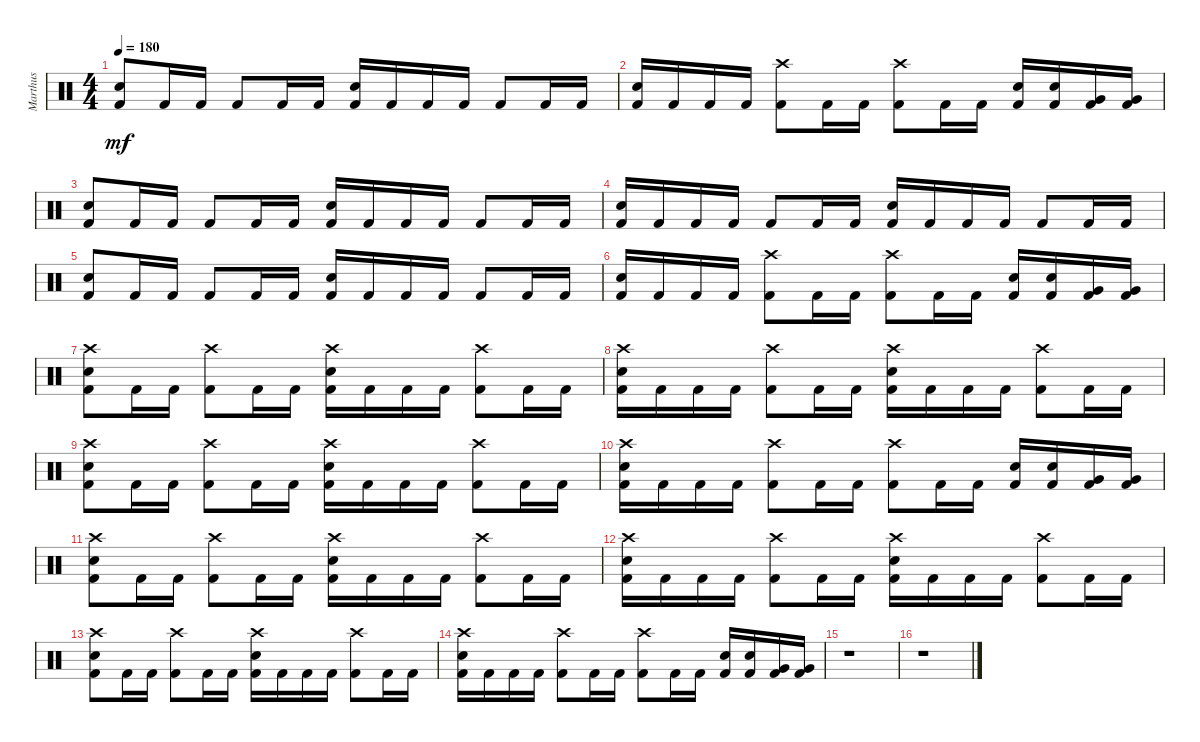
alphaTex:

\track ("Marthus" "Marthus") {instrument percussion}
\staff {score}
\articulation defaults
\ts (4 4)
\tempo 180
\clef neutral
\ks c
("Electric Snare (hit)" "Kick (hit) 2").8{dy mf} "Kick (hit) 2".16 "Kick (hit) 2".16 "Kick (hit) 2".8 "Kick (hit) 2".16 "Kick (hit) 2".16 ("Electric Snare (hit)" "Kick (hit) 2").16 "Kick (hit) 2".16 "Kick (hit) 2".16 "Kick (hit) 2".16 "Kick (hit) 2".8 "Kick (hit) 2".16 "Kick (hit) 2".16 |
("Electric Snare (hit)" "Kick (hit) 2").16 "Kick (hit) 2".16 "Kick (hit) 2".16 "Kick (hit) 2".16 ("Crash high (hit)" "Kick (hit) 2").8 "Kick (hit) 2".16 "Kick (hit) 2".16 ("Crash high (hit)" "Kick (hit) 2").8 "Kick (hit) 2".16 "Kick (hit) 2".16 ("Electric Snare (hit)" "Kick (hit) 2").16 ("Electric Snare (hit)" "Kick (hit) 2").16 ("Very Low Tom (hit)" "Kick (hit) 2").16 ("Very Low Tom (hit)" "Kick (hit) 2").16 |
("Electric Snare (hit)" "Kick (hit) 2").8 "Kick (hit) 2".16 "Kick (hit) 2".16 "Kick (hit) 2".8 "Kick (hit) 2".16 "Kick (hit) 2".16 ("Electric Snare (hit)" "Kick (hit) 2").16 "Kick (hit) 2".16 "Kick (hit) 2".16 "Kick (hit) 2".16 "Kick (hit) 2".8 "Kick (hit) 2".16 "Kick (hit) 2".16 |
("Electric Snare (hit)" "Kick (hit) 2").16 "Kick (hit) 2".16 "Kick (hit) 2".16 "Kick (hit) 2".16 "Kick (hit) 2".8 "Kick (hit) 2".16 "Kick (hit) 2".16 ("Electric Snare (hit)" "Kick (hit) 2").16 "Kick (hit) 2".16 "Kick (hit) 2".16 "Kick (hit) 2".16 "Kick (hit) 2".8 "Kick (hit) 2".16 "Kick (hit) 2".16 |
("Electric Snare (hit)" "Kick (hit) 2").8 "Kick (hit) 2".16 "Kick (hit) 2".16 "Kick (hit) 2".8 "Kick (hit) 2".16 "Kick (hit) 2".16 ("Electric Snare (hit)" "Kick (hit) 2").16 "Kick (hit) 2".16 "Kick (hit) 2".16 "Kick (hit) 2".16 "Kick (hit) 2".8 "Kick (hit) 2".16 "Kick (hit) 2".16 |
("Electric Snare (hit)" "Kick (hit) 2").16 "Kick (hit) 2".16 "Kick (hit) 2".16 "Kick (hit) 2".16 ("Crash high (hit)" "Kick (hit) 2").8 "Kick (hit) 2".16 "Kick (hit) 2".16 ("Crash high (hit)" "Kick (hit) 2").8 "Kick (hit) 2".16 "Kick (hit) 2".16 ("Electric Snare (hit)" "Kick (hit) 2").16 ("Electric Snare (hit)" "Kick (hit) 2").16 ("Very Low Tom (hit)" "Kick (hit) 2").16 ("Very Low Tom (hit)" "Kick (hit) 2").16 |
("Crash high (hit)" "Electric Snare (hit)" "Kick (hit) 2").8 "Kick (hit) 2".16 "Kick (hit) 2".16 ("Crash high (hit)" "Kick (hit) 2").8 "Kick (hit) 2".16 "Kick (hit) 2".16 ("Crash high (hit)" "Electric Snare (hit)" "Kick (hit) 2").16 "Kick (hit) 2".16 "Kick (hit) 2".16 "Kick (hit) 2".16 ("Crash high (hit)" "Kick (hit) 2").8 "Kick (hit) 2".16 "Kick (hit) 2".16 |
("Crash high (hit)" "Electric Snare (hit)" "Kick (hit) 2").16 "Kick (hit) 2".16 "Kick (hit) 2".16 "Kick (hit) 2".16 ("Crash high (hit)" "Kick (hit) 2").8 "Kick (hit) 2".16 "Kick (hit) 2".16 ("Crash high (hit)" "Electric Snare (hit)" "Kick (hit) 2").16 "Kick (hit) 2".16 "Kick (hit) 2".16 "Kick (hit) 2".16 ("Crash high (hit)" "Kick (hit) 2").8 "Kick (hit) 2".16 "Kick (hit) 2".16 |
("Crash high (hit)" "Electric Snare (hit)" "Kick (hit) 2").8 "Kick (hit) 2".16 "Kick (hit) 2".16 ("Crash high (hit)" "Kick (hit) 2").8 "Kick (hit) 2".16 "Kick (hit) 2".16 ("Crash high (hit)" "Electric Snare (hit)" "Kick (hit) 2").16 "Kick (hit) 2".16 "Kick (hit) 2".16 "Kick (hit) 2".16 ("Crash high (hit)" "Kick (hit) 2").8 "Kick (hit) 2".16 "Kick (hit) 2".16 |
("Crash high (hit)" "Electric Snare (hit)" "Kick (hit) 2").16 "Kick (hit) 2".16 "Kick (hit) 2".16 "Kick (hit) 2".16 ("Crash high (hit)" "Kick (hit) 2").8 "Kick (hit) 2".16 "Kick (hit) 2".16 ("Crash high (hit)" "Kick (hit) 2").8 "Kick (hit) 2".16 "Kick (hit) 2".16 ("Electric Snare (hit)" "Kick (hit) 2").16 ("Electric Snare (hit)" "Kick (hit) 2").16 ("Very Low Tom (hit)" "Kick (hit) 2").16 ("Very Low Tom (hit)" "Kick (hit) 2").16 |
("Crash high (hit)" "Electric Snare (hit)" "Kick (hit) 2").8 "Kick (hit) 2".16 "Kick (hit) 2".16 ("Crash high (hit)" "Kick (hit) 2").8 "Kick (hit) 2".16 "Kick (hit) 2".16 ("Crash high (hit)" "Electric Snare (hit)" "Kick (hit) 2").16 "Kick (hit) 2".16 "Kick (hit) 2".16 "Kick (hit) 2".16 ("Crash high (hit)" "Kick (hit) 2").8 "Kick (hit) 2".16 "Kick (hit) 2".16 |
("Crash high (hit)" "Electric Snare (hit)" "Kick (hit) 2").16 "Kick (hit) 2".16 "Kick (hit) 2".16 "Kick (hit) 2".16 ("Crash high (hit)" "Kick (hit) 2").8 "Kick (hit) 2".16 "Kick (hit) 2".16 ("Crash high (hit)" "Electric Snare (hit)" "Kick (hit) 2").16 "Kick (hit) 2".16 "Kick (hit) 2".16 "Kick (hit) 2".16 ("Crash high (hit)" "Kick (hit) 2").8 "Kick (hit) 2".16 "Kick (hit) 2".16 |
("Crash high (hit)" "Electric Snare (hit)" "Kick (hit) 2").8 "Kick (hit) 2".16 "Kick (hit) 2".16 ("Crash high (hit)" "Kick (hit) 2").8 "Kick (hit) 2".16 "Kick (hit) 2".16 ("Crash high (hit)" "Electric Snare (hit)" "Kick (hit) 2").16 "Kick (hit) 2".16 "Kick (hit) 2".16 "Kick (hit) 2".16 ("Crash high (hit)" "Kick (hit) 2").8 "Kick (hit) 2".16 "Kick (hit) 2".16 |
("Crash high (hit)" "Electric Snare (hit)" "Kick (hit) 2").16 "Kick (hit) 2".16 "Kick (hit) 2".16 "Kick (hit) 2".16 ("Crash high (hit)" "Kick (hit) 2").8 "Kick (hit) 2".16 "Kick (hit) 2".16 ("Crash high (hit)" "Kick (hit) 2").8 "Kick (hit) 2".16 "Kick (hit) 2".16 ("Electric Snare (hit)" "Kick (hit) 2").16 ("Electric Snare (hit)" "Kick (hit) 2").16 ("Very Low Tom (hit)" "Kick (hit) 2").16 ("Very Low Tom (hit)" "Kick (hit) 2").16 |
r.1 |
r.1
